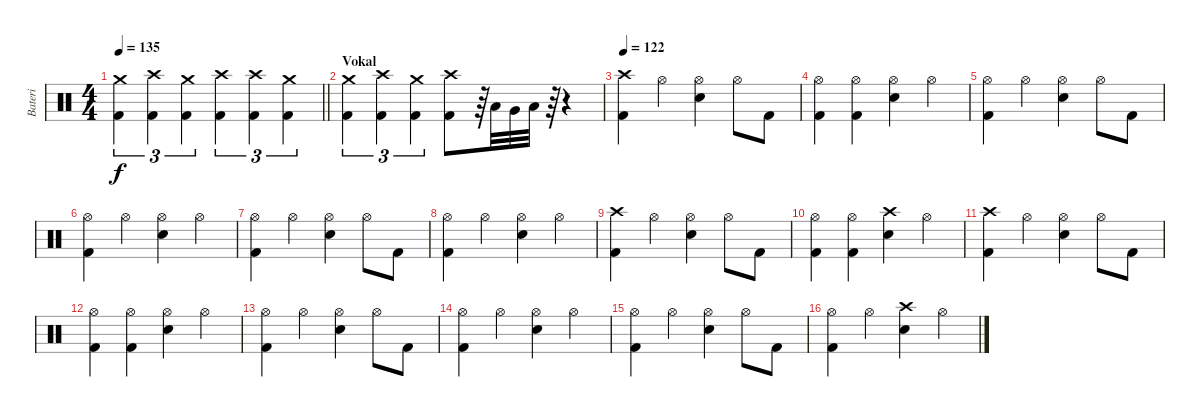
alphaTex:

\track ("Bateri" "Bateri") {instrument percussion}
\staff {score}
\articulation defaults
\ts (4 4)
\tempo 135
\clef neutral
\barLineRight lightlight
\ks c
("Crash medium (hit)" "Kick (hit) 2").4{tu (3 2) dy f} ("Crash high (hit)" "Kick (hit) 2").4{tu (3 2)} ("Crash medium (hit)" "Kick (hit) 2").4{tu (3 2)} ("Crash high (hit)" "Kick (hit) 2").4{tu (3 2)} ("Crash high (hit)" "Kick (hit) 2").4{tu (3 2)} ("Crash medium (hit)" "Kick (hit) 2").4{tu (3 2)} |
\section ("" "Vokal")
("Crash medium (hit)" "Kick (hit) 2").4{tu (3 2)} ("Crash high (hit)" "Kick (hit) 2").4{tu (3 2)} ("Crash medium (hit)" "Kick (hit) 2").4{tu (3 2)} ("Crash high (hit)" "Kick (hit) 2").8 r.64 "Low Tom (hit)".32 "Very Low Tom (hit)".32 "Low Tom (hit)".32 r.64 r.4 |
\tempo 122
("Crash high (hit)" "Kick (hit) 2").4 "Hi-Hat (open)".4 ("Hi-Hat (open)" "Snare (hit) 2").4 "Hi-Hat (open)".8 "Kick (hit) 2".8 |
("Hi-Hat (open)" "Kick (hit) 2").4 ("Hi-Hat (open)" "Kick (hit) 2").4 ("Hi-Hat (open)" "Snare (hit) 2").4 "Hi-Hat (open)".4 |
("Hi-Hat (open)" "Kick (hit) 2").4 "Hi-Hat (open)".4 ("Hi-Hat (open)" "Snare (hit) 2").4 "Hi-Hat (open)".8 "Kick (hit) 2".8 |
("Hi-Hat (open)" "Kick (hit) 2").4 "Hi-Hat (open)".4 ("Hi-Hat (open)" "Snare (hit) 2").4 "Hi-Hat (open)".4 |
("Hi-Hat (open)" "Kick (hit) 2").4 "Hi-Hat (open)".4 ("Hi-Hat (open)" "Snare (hit) 2").4 "Hi-Hat (open)".8 "Kick (hit) 2".8 |
("Hi-Hat (open)" "Kick (hit) 2").4 "Hi-Hat (open)".4 ("Hi-Hat (open)" "Snare (hit) 2").4 "Hi-Hat (open)".4 |
("Crash high (hit)" "Kick (hit) 2").4 "Hi-Hat (open)".4 ("Hi-Hat (open)" "Snare (hit) 2").4 "Hi-Hat (open)".8 "Kick (hit) 2".8 |
("Hi-Hat (open)" "Kick (hit) 2").4 ("Hi-Hat (open)" "Kick (hit) 2").4 ("Crash high (hit)" "Snare (hit) 2").4 "Hi-Hat (open)".4 |
("Crash high (hit)" "Kick (hit) 2").4 "Hi-Hat (open)".4 ("Hi-Hat (open)" "Snare (hit) 2").4 "Hi-Hat (open)".8 "Kick (hit) 2".8 |
("Hi-Hat (open)" "Kick (hit) 2").4 ("Hi-Hat (open)" "Kick (hit) 2").4 ("Hi-Hat (open)" "Snare (hit) 2").4 "Hi-Hat (open)".4 |
("Hi-Hat (open)" "Kick (hit) 2").4 "Hi-Hat (open)".4 ("Hi-Hat (open)" "Snare (hit) 2").4 "Hi-Hat (open)".8 "Kick (hit) 2".8 |
("Hi-Hat (open)" "Kick (hit) 2").4 "Hi-Hat (open)".4 ("Hi-Hat (open)" "Snare (hit) 2").4 "Hi-Hat (open)".4 |
("Hi-Hat (open)" "Kick (hit) 2").4 "Hi-Hat (open)".4 ("Hi-Hat (open)" "Snare (hit) 2").4 "Hi-Hat (open)".8 "Kick (hit) 2".8 |
("Hi-Hat (open)" "Kick (hit) 2").4 "Hi-Hat (open)".4 ("Crash high (hit)" "Snare (hit) 2").4 "Hi-Hat (open)".4
